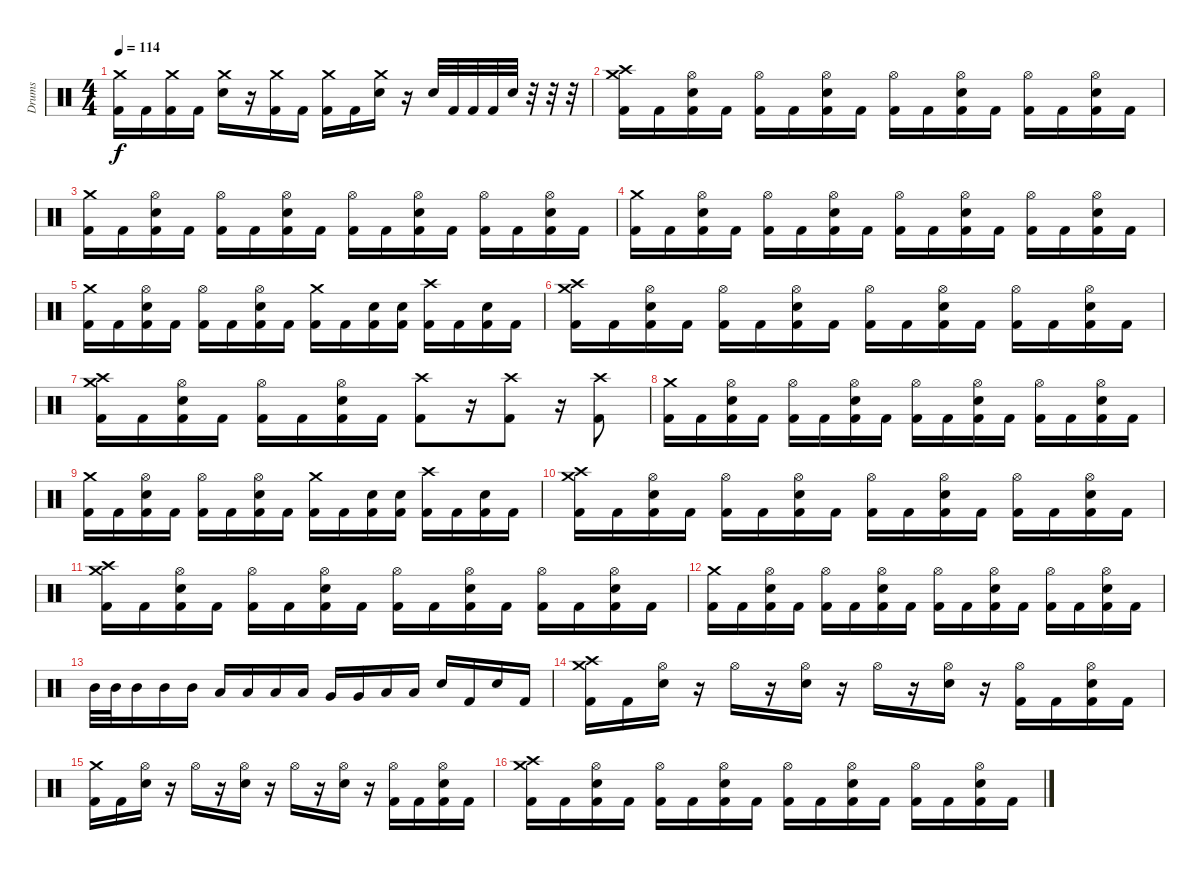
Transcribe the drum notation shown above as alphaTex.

\track ("Drums" "Drums") {instrument percussion}
\staff {score}
\articulation defaults
\ts (4 4)
\tempo 114
\clef neutral
\ks c
("Crash medium (hit)" "Kick (hit) 2").16{dy f} "Kick (hit) 2".16 ("Crash medium (hit)" "Kick (hit) 2").16 "Kick (hit) 2".16 ("Crash medium (hit)" "Snare (hit) 2").16 r.16 ("Crash medium (hit)" "Kick (hit) 2").16 "Kick (hit) 2".16 ("Crash medium (hit)" "Kick (hit) 2").16 "Kick (hit) 2".16 ("Crash medium (hit)" "Snare (hit) 2").16 r.16 "Snare (hit) 2".32 "Kick (hit) 2".32 "Kick (hit) 2".32 "Kick (hit) 2".32 "Snare (hit) 2".32 r.32 r.32 r.32 |
("Crash medium (hit)" "Crash high (hit)" "Kick (hit) 2").16 "Kick (hit) 2".16 ("Hi-Hat (open)" "Snare (hit) 2" "Kick (hit) 2").16 "Kick (hit) 2".16 ("Hi-Hat (open)" "Kick (hit) 2").16 "Kick (hit) 2".16 ("Hi-Hat (open)" "Snare (hit) 2" "Kick (hit) 2").16 "Kick (hit) 2".16 ("Hi-Hat (open)" "Kick (hit) 2").16 "Kick (hit) 2".16 ("Hi-Hat (open)" "Snare (hit) 2" "Kick (hit) 2").16 "Kick (hit) 2".16 ("Hi-Hat (open)" "Kick (hit) 2").16 "Kick (hit) 2".16 ("Hi-Hat (open)" "Snare (hit) 2" "Kick (hit) 2").16 "Kick (hit) 2".16 |
("Crash medium (hit)" "Kick (hit) 2").16 "Kick (hit) 2".16 ("Hi-Hat (open)" "Snare (hit) 2" "Kick (hit) 2").16 "Kick (hit) 2".16 ("Hi-Hat (open)" "Kick (hit) 2").16 "Kick (hit) 2".16 ("Hi-Hat (open)" "Snare (hit) 2" "Kick (hit) 2").16 "Kick (hit) 2".16 ("Hi-Hat (open)" "Kick (hit) 2").16 "Kick (hit) 2".16 ("Hi-Hat (open)" "Snare (hit) 2" "Kick (hit) 2").16 "Kick (hit) 2".16 ("Hi-Hat (open)" "Kick (hit) 2").16 "Kick (hit) 2".16 ("Hi-Hat (open)" "Snare (hit) 2" "Kick (hit) 2").16 "Kick (hit) 2".16 |
("Crash medium (hit)" "Kick (hit) 2").16 "Kick (hit) 2".16 ("Hi-Hat (open)" "Snare (hit) 2" "Kick (hit) 2").16 "Kick (hit) 2".16 ("Hi-Hat (open)" "Kick (hit) 2").16 "Kick (hit) 2".16 ("Hi-Hat (open)" "Snare (hit) 2" "Kick (hit) 2").16 "Kick (hit) 2".16 ("Hi-Hat (open)" "Kick (hit) 2").16 "Kick (hit) 2".16 ("Hi-Hat (open)" "Snare (hit) 2" "Kick (hit) 2").16 "Kick (hit) 2".16 ("Hi-Hat (open)" "Kick (hit) 2").16 "Kick (hit) 2".16 ("Hi-Hat (open)" "Snare (hit) 2" "Kick (hit) 2").16 "Kick (hit) 2".16 |
("Crash medium (hit)" "Kick (hit) 2").16 "Kick (hit) 2".16 ("Hi-Hat (open)" "Snare (hit) 2" "Kick (hit) 2").16 "Kick (hit) 2".16 ("Hi-Hat (open)" "Kick (hit) 2").16 "Kick (hit) 2".16 ("Hi-Hat (open)" "Snare (hit) 2" "Kick (hit) 2").16 "Kick (hit) 2".16 ("Crash medium (hit)" "Kick (hit) 2").16 "Kick (hit) 2".16 ("Snare (hit) 2" "Kick (hit) 2").16 ("Snare (hit) 2" "Kick (hit) 2").16 ("Crash high (hit)" "Kick (hit) 2").16 "Kick (hit) 2".16 ("Snare (hit) 2" "Kick (hit) 2").16 "Kick (hit) 2".16 |
("Crash medium (hit)" "Crash high (hit)" "Kick (hit) 2").16 "Kick (hit) 2".16 ("Hi-Hat (open)" "Snare (hit) 2" "Kick (hit) 2").16 "Kick (hit) 2".16 ("Hi-Hat (open)" "Kick (hit) 2").16 "Kick (hit) 2".16 ("Hi-Hat (open)" "Snare (hit) 2" "Kick (hit) 2").16 "Kick (hit) 2".16 ("Hi-Hat (open)" "Kick (hit) 2").16 "Kick (hit) 2".16 ("Hi-Hat (open)" "Snare (hit) 2" "Kick (hit) 2").16 "Kick (hit) 2".16 ("Hi-Hat (open)" "Kick (hit) 2").16 "Kick (hit) 2".16 ("Hi-Hat (open)" "Snare (hit) 2" "Kick (hit) 2").16 "Kick (hit) 2".16 |
("Crash medium (hit)" "Crash high (hit)" "Kick (hit) 2").16 "Kick (hit) 2".16 ("Hi-Hat (open)" "Snare (hit) 2" "Kick (hit) 2").16 "Kick (hit) 2".16 ("Hi-Hat (open)" "Kick (hit) 2").16 "Kick (hit) 2".16 ("Hi-Hat (open)" "Snare (hit) 2" "Kick (hit) 2").16 "Kick (hit) 2".16 ("Crash high (hit)" "Kick (hit) 2").8 r.16{volume 0} ("Crash high (hit)" "Kick (hit) 2").8{volume 14} r.16{volume 0} ("Crash high (hit)" "Kick (hit) 2").8{volume 13} |
("Crash medium (hit)" "Kick (hit) 2").16{volume 16} "Kick (hit) 2".16 ("Hi-Hat (open)" "Snare (hit) 2" "Kick (hit) 2").16 "Kick (hit) 2".16 ("Hi-Hat (open)" "Kick (hit) 2").16 "Kick (hit) 2".16 ("Hi-Hat (open)" "Snare (hit) 2" "Kick (hit) 2").16 "Kick (hit) 2".16 ("Hi-Hat (open)" "Kick (hit) 2").16 "Kick (hit) 2".16 ("Hi-Hat (open)" "Snare (hit) 2" "Kick (hit) 2").16 "Kick (hit) 2".16 ("Hi-Hat (open)" "Kick (hit) 2").16 "Kick (hit) 2".16 ("Hi-Hat (open)" "Snare (hit) 2" "Kick (hit) 2").16 "Kick (hit) 2".16 |
("Crash medium (hit)" "Kick (hit) 2").16 "Kick (hit) 2".16 ("Hi-Hat (open)" "Snare (hit) 2" "Kick (hit) 2").16 "Kick (hit) 2".16 ("Hi-Hat (open)" "Kick (hit) 2").16 "Kick (hit) 2".16 ("Hi-Hat (open)" "Snare (hit) 2" "Kick (hit) 2").16 "Kick (hit) 2".16 ("Crash medium (hit)" "Kick (hit) 2").16 "Kick (hit) 2".16 ("Snare (hit) 2" "Kick (hit) 2").16 ("Snare (hit) 2" "Kick (hit) 2").16 ("Crash high (hit)" "Kick (hit) 2").16 "Kick (hit) 2".16 ("Snare (hit) 2" "Kick (hit) 2").16 "Kick (hit) 2".16 |
("Crash medium (hit)" "Crash high (hit)" "Kick (hit) 2").16 "Kick (hit) 2".16 ("Hi-Hat (open)" "Snare (hit) 2" "Kick (hit) 2").16 "Kick (hit) 2".16 ("Hi-Hat (open)" "Kick (hit) 2").16 "Kick (hit) 2".16 ("Hi-Hat (open)" "Snare (hit) 2" "Kick (hit) 2").16 "Kick (hit) 2".16 ("Hi-Hat (open)" "Kick (hit) 2").16 "Kick (hit) 2".16 ("Hi-Hat (open)" "Snare (hit) 2" "Kick (hit) 2").16 "Kick (hit) 2".16 ("Hi-Hat (open)" "Kick (hit) 2").16 "Kick (hit) 2".16 ("Hi-Hat (open)" "Snare (hit) 2" "Kick (hit) 2").16 "Kick (hit) 2".16 |
("Crash medium (hit)" "Crash high (hit)" "Kick (hit) 2").16 "Kick (hit) 2".16 ("Hi-Hat (open)" "Snare (hit) 2" "Kick (hit) 2").16 "Kick (hit) 2".16 ("Hi-Hat (open)" "Kick (hit) 2").16 "Kick (hit) 2".16 ("Hi-Hat (open)" "Snare (hit) 2" "Kick (hit) 2").16 "Kick (hit) 2".16 ("Hi-Hat (open)" "Kick (hit) 2").16 "Kick (hit) 2".16 ("Hi-Hat (open)" "Snare (hit) 2" "Kick (hit) 2").16 "Kick (hit) 2".16 ("Hi-Hat (open)" "Kick (hit) 2").16 "Kick (hit) 2".16 ("Hi-Hat (open)" "Snare (hit) 2" "Kick (hit) 2").16 "Kick (hit) 2".16 |
("Crash medium (hit)" "Kick (hit) 2").16{volume 16} "Kick (hit) 2".16 ("Hi-Hat (open)" "Snare (hit) 2" "Kick (hit) 2").16 "Kick (hit) 2".16 ("Hi-Hat (open)" "Kick (hit) 2").16 "Kick (hit) 2".16 ("Hi-Hat (open)" "Snare (hit) 2" "Kick (hit) 2").16 "Kick (hit) 2".16 ("Hi-Hat (open)" "Kick (hit) 2").16 "Kick (hit) 2".16 ("Hi-Hat (open)" "Snare (hit) 2" "Kick (hit) 2").16 "Kick (hit) 2".16 ("Hi-Hat (open)" "Kick (hit) 2").16 "Kick (hit) 2".16 ("Hi-Hat (open)" "Snare (hit) 2" "Kick (hit) 2").16 "Kick (hit) 2".16 |
"Mid Tom (hit)".32 "Mid Tom (hit)".32 "Mid Tom (hit)".16 "Mid Tom (hit)".16 "Mid Tom (hit)".16 "Low Tom (hit)".16 "Low Tom (hit)".16 "Low Tom (hit)".16 "Low Tom (hit)".16 "Very Low Tom (hit)".16 "Very Low Tom (hit)".16 "Low Floor Tom (hit)".16 "Low Floor Tom (hit)".16 "Snare (hit) 2".16 "Kick (hit) 2".16 "Snare (hit) 2".16 "Kick (hit) 2".16 |
("Crash medium (hit)" "Crash high (hit)" "Kick (hit) 2").16 "Kick (hit) 2".16 ("Hi-Hat (open)" "Snare (hit) 2").16 r.16 "Hi-Hat (open)".16 r.16 ("Hi-Hat (open)" "Snare (hit) 2").16 r.16 "Hi-Hat (open)".16 r.16 ("Hi-Hat (open)" "Snare (hit) 2").16 r.16 ("Hi-Hat (open)" "Kick (hit) 2").16 "Kick (hit) 2".16 ("Hi-Hat (open)" "Snare (hit) 2" "Kick (hit) 2").16 "Kick (hit) 2".16 |
("Crash medium (hit)" "Kick (hit) 2").16 "Kick (hit) 2".16 ("Hi-Hat (open)" "Snare (hit) 2").16 r.16 "Hi-Hat (open)".16 r.16 ("Hi-Hat (open)" "Snare (hit) 2").16 r.16 "Hi-Hat (open)".16 r.16 ("Hi-Hat (open)" "Snare (hit) 2").16 r.16 ("Hi-Hat (open)" "Kick (hit) 2").16 "Kick (hit) 2".16 ("Hi-Hat (open)" "Snare (hit) 2" "Kick (hit) 2").16 "Kick (hit) 2".16 |
("Crash medium (hit)" "Crash high (hit)" "Kick (hit) 2").16 "Kick (hit) 2".16 ("Hi-Hat (open)" "Snare (hit) 2" "Kick (hit) 2").16 "Kick (hit) 2".16 ("Hi-Hat (open)" "Kick (hit) 2").16 "Kick (hit) 2".16 ("Hi-Hat (open)" "Snare (hit) 2" "Kick (hit) 2").16 "Kick (hit) 2".16 ("Hi-Hat (open)" "Kick (hit) 2").16 "Kick (hit) 2".16 ("Hi-Hat (open)" "Snare (hit) 2" "Kick (hit) 2").16 "Kick (hit) 2".16 ("Hi-Hat (open)" "Kick (hit) 2").16 "Kick (hit) 2".16 ("Hi-Hat (open)" "Snare (hit) 2" "Kick (hit) 2").16 "Kick (hit) 2".16
